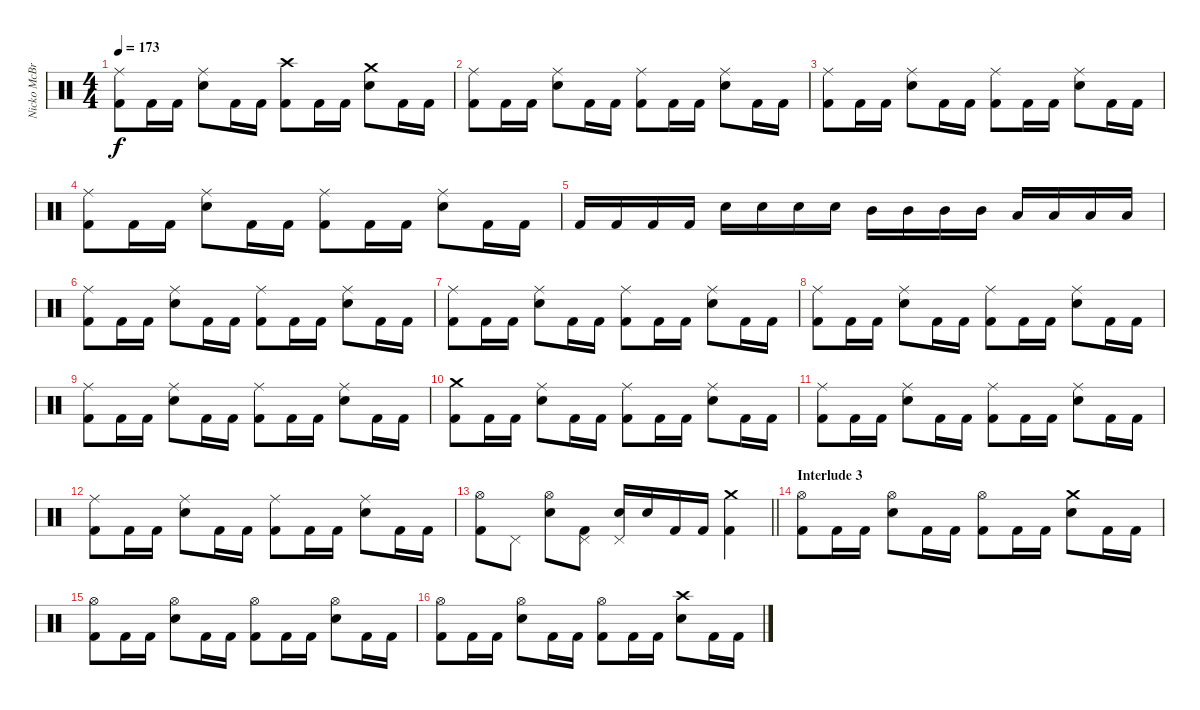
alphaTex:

\track ("Nicko McBrain" "Nicko McBr") {instrument percussion}
\staff {score}
\articulation defaults
\ts (4 4)
\tempo 173
\clef neutral
\ks c
("Ride (middle)" "Kick (hit) 2").8{dy f} "Kick (hit) 2".16 "Kick (hit) 2".16 ("Ride (middle)" "Electric Snare (hit)").8 "Kick (hit) 2".16 "Kick (hit) 2".16 ("Crash high (hit)" "Kick (hit) 2").8 "Kick (hit) 2".16 "Kick (hit) 2".16 ("Crash medium (hit)" "Electric Snare (hit)").8 "Kick (hit) 2".16 "Kick (hit) 2".16 |
("Ride (middle)" "Kick (hit) 2").8 "Kick (hit) 2".16 "Kick (hit) 2".16 ("Ride (middle)" "Electric Snare (hit)").8 "Kick (hit) 2".16 "Kick (hit) 2".16 ("Ride (middle)" "Kick (hit) 2").8 "Kick (hit) 2".16 "Kick (hit) 2".16 ("Ride (middle)" "Electric Snare (hit)").8 "Kick (hit) 2".16 "Kick (hit) 2".16 |
("Ride (middle)" "Kick (hit) 2").8 "Kick (hit) 2".16 "Kick (hit) 2".16 ("Ride (middle)" "Electric Snare (hit)").8 "Kick (hit) 2".16 "Kick (hit) 2".16 ("Ride (middle)" "Kick (hit) 2").8 "Kick (hit) 2".16 "Kick (hit) 2".16 ("Ride (middle)" "Electric Snare (hit)").8 "Kick (hit) 2".16 "Kick (hit) 2".16 |
("Ride (middle)" "Kick (hit) 2").8 "Kick (hit) 2".16 "Kick (hit) 2".16 ("Ride (middle)" "Electric Snare (hit)").8 "Kick (hit) 2".16 "Kick (hit) 2".16 ("Ride (middle)" "Kick (hit) 2").8 "Kick (hit) 2".16 "Kick (hit) 2".16 ("Ride (middle)" "Electric Snare (hit)").8 "Kick (hit) 2".16 "Kick (hit) 2".16 |
"Kick (hit) 2".16 "Kick (hit) 2".16 "Kick (hit) 2".16 "Kick (hit) 2".16 "Electric Snare (hit)".16 "Electric Snare (hit)".16 "Electric Snare (hit)".16 "Electric Snare (hit)".16 "Mid Tom (hit)".16 "Mid Tom (hit)".16 "Mid Tom (hit)".16 "Mid Tom (hit)".16 "Low Tom (hit)".16 "Low Tom (hit)".16 "Low Tom (hit)".16 "Low Tom (hit)".16 |
("Ride (middle)" "Kick (hit) 2").8 "Kick (hit) 2".16 "Kick (hit) 2".16 ("Ride (middle)" "Electric Snare (hit)").8 "Kick (hit) 2".16 "Kick (hit) 2".16 ("Ride (middle)" "Kick (hit) 2").8 "Kick (hit) 2".16 "Kick (hit) 2".16 ("Ride (middle)" "Electric Snare (hit)").8 "Kick (hit) 2".16 "Kick (hit) 2".16 |
("Ride (middle)" "Kick (hit) 2").8 "Kick (hit) 2".16 "Kick (hit) 2".16 ("Ride (middle)" "Electric Snare (hit)").8 "Kick (hit) 2".16 "Kick (hit) 2".16 ("Ride (middle)" "Kick (hit) 2").8 "Kick (hit) 2".16 "Kick (hit) 2".16 ("Ride (middle)" "Electric Snare (hit)").8 "Kick (hit) 2".16 "Kick (hit) 2".16 |
("Ride (middle)" "Kick (hit) 2").8 "Kick (hit) 2".16 "Kick (hit) 2".16 ("Ride (middle)" "Electric Snare (hit)").8 "Kick (hit) 2".16 "Kick (hit) 2".16 ("Ride (middle)" "Kick (hit) 2").8 "Kick (hit) 2".16 "Kick (hit) 2".16 ("Ride (middle)" "Electric Snare (hit)").8 "Kick (hit) 2".16 "Kick (hit) 2".16 |
("Ride (middle)" "Kick (hit) 2").8 "Kick (hit) 2".16 "Kick (hit) 2".16 ("Ride (middle)" "Electric Snare (hit)").8 "Kick (hit) 2".16 "Kick (hit) 2".16 ("Ride (middle)" "Kick (hit) 2").8 "Kick (hit) 2".16 "Kick (hit) 2".16 ("Ride (middle)" "Electric Snare (hit)").8 "Kick (hit) 2".16 "Kick (hit) 2".16 |
("Crash medium (hit)" "Kick (hit) 2").8 "Kick (hit) 2".16 "Kick (hit) 2".16 ("Ride (middle)" "Electric Snare (hit)").8 "Kick (hit) 2".16 "Kick (hit) 2".16 ("Ride (middle)" "Kick (hit) 2").8 "Kick (hit) 2".16 "Kick (hit) 2".16 ("Ride (middle)" "Electric Snare (hit)").8 "Kick (hit) 2".16 "Kick (hit) 2".16 |
("Ride (middle)" "Kick (hit) 2").8 "Kick (hit) 2".16 "Kick (hit) 2".16 ("Ride (middle)" "Electric Snare (hit)").8 "Kick (hit) 2".16 "Kick (hit) 2".16 ("Ride (middle)" "Kick (hit) 2").8 "Kick (hit) 2".16 "Kick (hit) 2".16 ("Ride (middle)" "Electric Snare (hit)").8 "Kick (hit) 2".16 "Kick (hit) 2".16 |
("Ride (middle)" "Kick (hit) 2").8 "Kick (hit) 2".16 "Kick (hit) 2".16 ("Ride (middle)" "Electric Snare (hit)").8 "Kick (hit) 2".16 "Kick (hit) 2".16 ("Ride (middle)" "Kick (hit) 2").8 "Kick (hit) 2".16 "Kick (hit) 2".16 ("Ride (middle)" "Electric Snare (hit)").8 "Kick (hit) 2".16 "Kick (hit) 2".16 |
\barLineRight lightlight
("Hi-Hat (open)" "Kick (hit) 2").8 "Pedal Hi-Hat (hit)".8 ("Hi-Hat (open)" "Electric Snare (hit)").8 ("Pedal Hi-Hat (hit)" "Kick (hit) 2").8 ("Pedal Hi-Hat (hit)" "Electric Snare (hit)").16 "Electric Snare (hit)".16 "Kick (hit) 2".16 "Kick (hit) 2".16 ("Crash medium (hit)" "Kick (hit) 2").4 |
\section ("" "Interlude 3")
("Hi-Hat (open)" "Kick (hit) 2").8 "Kick (hit) 2".16 "Kick (hit) 2".16 ("Hi-Hat (open)" "Electric Snare (hit)").8 "Kick (hit) 2".16 "Kick (hit) 2".16 ("Hi-Hat (open)" "Kick (hit) 2").8 "Kick (hit) 2".16 "Kick (hit) 2".16 ("Crash medium (hit)" "Electric Snare (hit)").8 "Kick (hit) 2".16 "Kick (hit) 2".16 |
("Hi-Hat (open)" "Kick (hit) 2").8 "Kick (hit) 2".16 "Kick (hit) 2".16 ("Hi-Hat (open)" "Electric Snare (hit)").8 "Kick (hit) 2".16 "Kick (hit) 2".16 ("Hi-Hat (open)" "Kick (hit) 2").8 "Kick (hit) 2".16 "Kick (hit) 2".16 ("Hi-Hat (open)" "Electric Snare (hit)").8 "Kick (hit) 2".16 "Kick (hit) 2".16 |
("Hi-Hat (open)" "Kick (hit) 2").8 "Kick (hit) 2".16 "Kick (hit) 2".16 ("Hi-Hat (open)" "Electric Snare (hit)").8 "Kick (hit) 2".16 "Kick (hit) 2".16 ("Hi-Hat (open)" "Kick (hit) 2").8 "Kick (hit) 2".16 "Kick (hit) 2".16 ("Crash high (hit)" "Electric Snare (hit)").8 "Kick (hit) 2".16 "Kick (hit) 2".16
